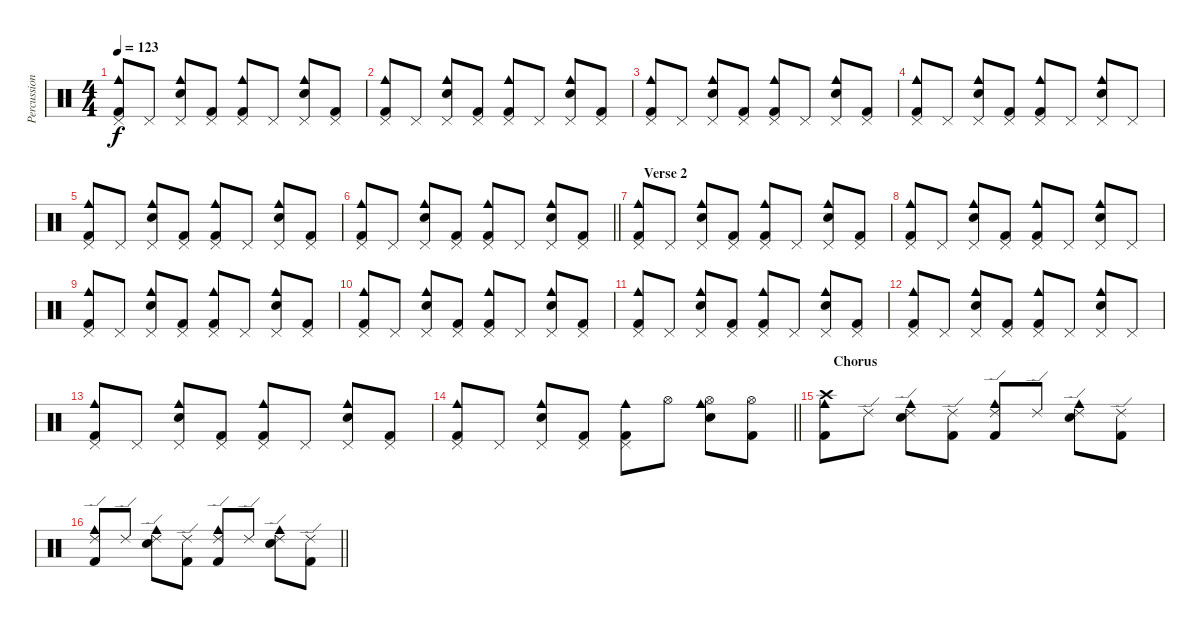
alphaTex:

\track ("Percussion" "Percussion") {instrument percussion}
\staff {score}
\articulation defaults
\ts (4 4)
\tempo 123
\clef neutral
\ks c
("Pedal Hi-Hat (hit)" "Kick (hit) 2" "Cowbell medium (hit)").8{dy f} "Pedal Hi-Hat (hit)".8 ("Pedal Hi-Hat (hit)" "Electric Snare (hit)" "Cowbell medium (hit)").8 ("Pedal Hi-Hat (hit)" "Kick (hit) 2").8 ("Pedal Hi-Hat (hit)" "Kick (hit) 2" "Cowbell medium (hit)").8 "Pedal Hi-Hat (hit)".8 ("Pedal Hi-Hat (hit)" "Electric Snare (hit)" "Cowbell medium (hit)").8 ("Pedal Hi-Hat (hit)" "Kick (hit) 2").8 |
("Pedal Hi-Hat (hit)" "Kick (hit) 2" "Cowbell medium (hit)").8 "Pedal Hi-Hat (hit)".8 ("Pedal Hi-Hat (hit)" "Electric Snare (hit)" "Cowbell medium (hit)").8 ("Pedal Hi-Hat (hit)" "Kick (hit) 2").8 ("Pedal Hi-Hat (hit)" "Kick (hit) 2" "Cowbell medium (hit)").8 "Pedal Hi-Hat (hit)".8 ("Pedal Hi-Hat (hit)" "Electric Snare (hit)" "Cowbell medium (hit)").8 ("Pedal Hi-Hat (hit)" "Kick (hit) 2").8 |
("Pedal Hi-Hat (hit)" "Kick (hit) 2" "Cowbell medium (hit)").8 "Pedal Hi-Hat (hit)".8 ("Pedal Hi-Hat (hit)" "Electric Snare (hit)" "Cowbell medium (hit)").8 ("Pedal Hi-Hat (hit)" "Kick (hit) 2").8 ("Pedal Hi-Hat (hit)" "Kick (hit) 2" "Cowbell medium (hit)").8 "Pedal Hi-Hat (hit)".8 ("Pedal Hi-Hat (hit)" "Electric Snare (hit)" "Cowbell medium (hit)").8 ("Pedal Hi-Hat (hit)" "Kick (hit) 2").8 |
("Pedal Hi-Hat (hit)" "Kick (hit) 2" "Cowbell medium (hit)").8 "Pedal Hi-Hat (hit)".8 ("Pedal Hi-Hat (hit)" "Electric Snare (hit)" "Cowbell medium (hit)").8 ("Pedal Hi-Hat (hit)" "Kick (hit) 2").8 ("Pedal Hi-Hat (hit)" "Kick (hit) 2" "Cowbell medium (hit)").8 "Pedal Hi-Hat (hit)".8 ("Pedal Hi-Hat (hit)" "Electric Snare (hit)" "Cowbell medium (hit)").8 "Pedal Hi-Hat (hit)".8 |
("Pedal Hi-Hat (hit)" "Kick (hit) 2" "Cowbell medium (hit)").8 "Pedal Hi-Hat (hit)".8 ("Pedal Hi-Hat (hit)" "Electric Snare (hit)" "Cowbell medium (hit)").8 ("Pedal Hi-Hat (hit)" "Kick (hit) 2").8 ("Pedal Hi-Hat (hit)" "Kick (hit) 2" "Cowbell medium (hit)").8 "Pedal Hi-Hat (hit)".8 ("Pedal Hi-Hat (hit)" "Electric Snare (hit)" "Cowbell medium (hit)").8 ("Pedal Hi-Hat (hit)" "Kick (hit) 2").8 |
\barLineRight lightlight
("Pedal Hi-Hat (hit)" "Kick (hit) 2" "Cowbell medium (hit)").8 "Pedal Hi-Hat (hit)".8 ("Pedal Hi-Hat (hit)" "Electric Snare (hit)" "Cowbell medium (hit)").8 ("Pedal Hi-Hat (hit)" "Kick (hit) 2").8 ("Pedal Hi-Hat (hit)" "Kick (hit) 2" "Cowbell medium (hit)").8 "Pedal Hi-Hat (hit)".8 ("Pedal Hi-Hat (hit)" "Electric Snare (hit)" "Cowbell medium (hit)").8 ("Pedal Hi-Hat (hit)" "Kick (hit) 2").8 |
\section ("" "   Verse 2")
("Pedal Hi-Hat (hit)" "Kick (hit) 2" "Cowbell medium (hit)").8 "Pedal Hi-Hat (hit)".8 ("Pedal Hi-Hat (hit)" "Electric Snare (hit)" "Cowbell medium (hit)").8 ("Pedal Hi-Hat (hit)" "Kick (hit) 2").8 ("Pedal Hi-Hat (hit)" "Kick (hit) 2" "Cowbell medium (hit)").8 "Pedal Hi-Hat (hit)".8 ("Pedal Hi-Hat (hit)" "Electric Snare (hit)" "Cowbell medium (hit)").8 ("Pedal Hi-Hat (hit)" "Kick (hit) 2").8 |
("Pedal Hi-Hat (hit)" "Kick (hit) 2" "Cowbell medium (hit)").8 "Pedal Hi-Hat (hit)".8 ("Pedal Hi-Hat (hit)" "Electric Snare (hit)" "Cowbell medium (hit)").8 ("Pedal Hi-Hat (hit)" "Kick (hit) 2").8 ("Pedal Hi-Hat (hit)" "Kick (hit) 2" "Cowbell medium (hit)").8 "Pedal Hi-Hat (hit)".8 ("Pedal Hi-Hat (hit)" "Electric Snare (hit)" "Cowbell medium (hit)").8 "Pedal Hi-Hat (hit)".8 |
("Pedal Hi-Hat (hit)" "Kick (hit) 2" "Cowbell medium (hit)").8 "Pedal Hi-Hat (hit)".8 ("Pedal Hi-Hat (hit)" "Electric Snare (hit)" "Cowbell medium (hit)").8 ("Pedal Hi-Hat (hit)" "Kick (hit) 2").8 ("Pedal Hi-Hat (hit)" "Kick (hit) 2" "Cowbell medium (hit)").8 "Pedal Hi-Hat (hit)".8 ("Pedal Hi-Hat (hit)" "Electric Snare (hit)" "Cowbell medium (hit)").8 ("Pedal Hi-Hat (hit)" "Kick (hit) 2").8 |
("Pedal Hi-Hat (hit)" "Kick (hit) 2" "Cowbell medium (hit)").8 "Pedal Hi-Hat (hit)".8 ("Pedal Hi-Hat (hit)" "Electric Snare (hit)" "Cowbell medium (hit)").8 ("Pedal Hi-Hat (hit)" "Kick (hit) 2").8 ("Pedal Hi-Hat (hit)" "Kick (hit) 2" "Cowbell medium (hit)").8 "Pedal Hi-Hat (hit)".8 ("Pedal Hi-Hat (hit)" "Electric Snare (hit)" "Cowbell medium (hit)").8 ("Pedal Hi-Hat (hit)" "Kick (hit) 2").8 |
("Pedal Hi-Hat (hit)" "Kick (hit) 2" "Cowbell medium (hit)").8 "Pedal Hi-Hat (hit)".8 ("Pedal Hi-Hat (hit)" "Electric Snare (hit)" "Cowbell medium (hit)").8 ("Pedal Hi-Hat (hit)" "Kick (hit) 2").8 ("Pedal Hi-Hat (hit)" "Kick (hit) 2" "Cowbell medium (hit)").8 "Pedal Hi-Hat (hit)".8 ("Pedal Hi-Hat (hit)" "Electric Snare (hit)" "Cowbell medium (hit)").8 ("Pedal Hi-Hat (hit)" "Kick (hit) 2").8 |
("Pedal Hi-Hat (hit)" "Kick (hit) 2" "Cowbell medium (hit)").8 "Pedal Hi-Hat (hit)".8 ("Pedal Hi-Hat (hit)" "Electric Snare (hit)" "Cowbell medium (hit)").8 ("Pedal Hi-Hat (hit)" "Kick (hit) 2").8 ("Pedal Hi-Hat (hit)" "Kick (hit) 2" "Cowbell medium (hit)").8 "Pedal Hi-Hat (hit)".8 ("Pedal Hi-Hat (hit)" "Electric Snare (hit)" "Cowbell medium (hit)").8 "Pedal Hi-Hat (hit)".8 |
("Pedal Hi-Hat (hit)" "Kick (hit) 2" "Cowbell medium (hit)").8 "Pedal Hi-Hat (hit)".8 ("Pedal Hi-Hat (hit)" "Electric Snare (hit)" "Cowbell medium (hit)").8 ("Pedal Hi-Hat (hit)" "Kick (hit) 2").8 ("Pedal Hi-Hat (hit)" "Kick (hit) 2" "Cowbell medium (hit)").8 "Pedal Hi-Hat (hit)".8 ("Pedal Hi-Hat (hit)" "Electric Snare (hit)" "Cowbell medium (hit)").8 ("Pedal Hi-Hat (hit)" "Kick (hit) 2").8 |
\barLineRight lightlight
("Pedal Hi-Hat (hit)" "Kick (hit) 2" "Cowbell medium (hit)").8 "Pedal Hi-Hat (hit)".8 ("Pedal Hi-Hat (hit)" "Electric Snare (hit)" "Cowbell medium (hit)").8 ("Pedal Hi-Hat (hit)" "Kick (hit) 2").8 ("Pedal Hi-Hat (hit)" "Kick (hit) 2" "Cowbell medium (hit)").8 "Hi-Hat (open)".8 ("Hi-Hat (open)" "Electric Snare (hit)" "Cowbell medium (hit)").8 ("Hi-Hat (open)" "Kick (hit) 2").8 |
\section ("" "    Chorus ")
("Crash high (hit)" "Kick (hit) 2" "Cowbell medium (hit)").8 "Ride (edge) 2".8 ("Ride (edge) 2" "Electric Snare (hit)" "Cowbell medium (hit)").8 ("Ride (edge) 2" "Kick (hit) 2").8 ("Ride (edge) 2" "Kick (hit) 2" "Cowbell medium (hit)").8 "Ride (edge) 2".8 ("Ride (edge) 2" "Electric Snare (hit)" "Cowbell medium (hit)").8 ("Ride (edge) 2" "Kick (hit) 2").8 |
\barLineRight lightlight
("Ride (edge) 2" "Kick (hit) 2" "Cowbell medium (hit)").8 "Ride (edge) 2".8 ("Ride (edge) 2" "Electric Snare (hit)" "Cowbell medium (hit)").8 ("Ride (edge) 2" "Kick (hit) 2").8 ("Ride (edge) 2" "Kick (hit) 2" "Cowbell medium (hit)").8 "Ride (edge) 2".8 ("Ride (edge) 2" "Electric Snare (hit)" "Cowbell medium (hit)").8 ("Ride (edge) 2" "Kick (hit) 2").8
